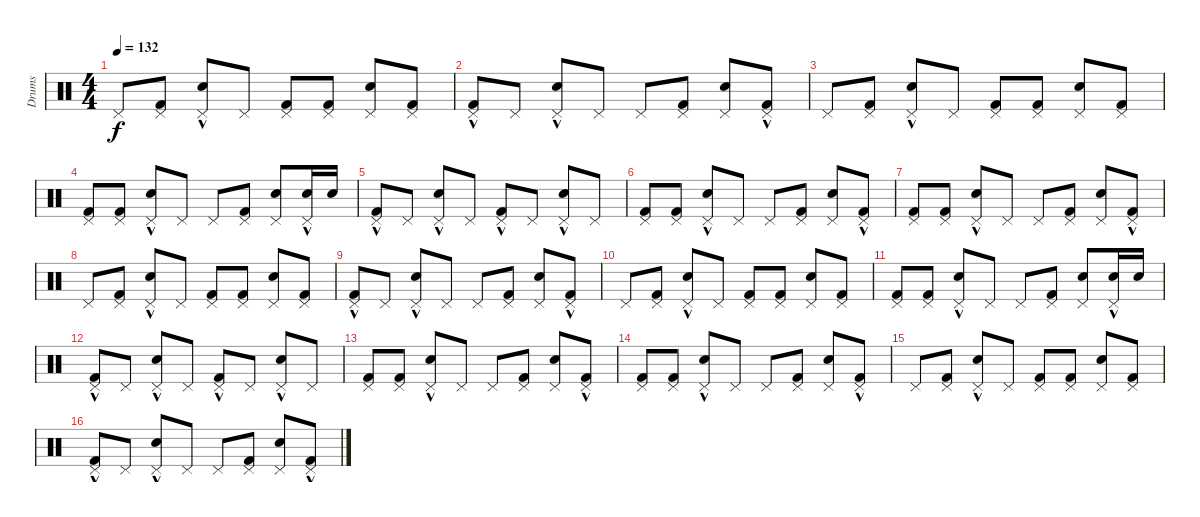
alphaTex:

\track ("Drums" "Drums") {instrument percussion}
\staff {score}
\articulation defaults
\ts (4 4)
\tempo 132
\clef neutral
\ks c "Pedal Hi-Hat (hit)".8{dy f}
("Pedal Hi-Hat (hit)" "Kick (hit) 2").8 ("Pedal Hi-Hat (hit)"{hac} "Snare (hit) 2").8 "Pedal Hi-Hat (hit)".8 ("Pedal Hi-Hat (hit)" "Kick (hit) 2").8 ("Pedal Hi-Hat (hit)" "Kick (hit) 2").8 ("Pedal Hi-Hat (hit)" "Snare (hit) 2").8 ("Pedal Hi-Hat (hit)" "Kick (hit) 2").8 |
("Pedal Hi-Hat (hit)"{hac} "Kick (hit) 2").8 "Pedal Hi-Hat (hit)".8 ("Pedal Hi-Hat (hit)"{hac} "Snare (hit) 2").8 "Pedal Hi-Hat (hit)".8 "Pedal Hi-Hat (hit)".8 ("Pedal Hi-Hat (hit)" "Kick (hit) 2").8 ("Pedal Hi-Hat (hit)" "Snare (hit) 2").8 ("Pedal Hi-Hat (hit)"{hac} "Kick (hit) 2"{hac}).8 |
"Pedal Hi-Hat (hit)".8 ("Pedal Hi-Hat (hit)" "Kick (hit) 2").8 ("Pedal Hi-Hat (hit)"{hac} "Snare (hit) 2").8 "Pedal Hi-Hat (hit)".8 ("Pedal Hi-Hat (hit)" "Kick (hit) 2").8 ("Pedal Hi-Hat (hit)" "Kick (hit) 2").8 ("Pedal Hi-Hat (hit)" "Snare (hit) 2").8 ("Pedal Hi-Hat (hit)" "Kick (hit) 2").8 |
("Pedal Hi-Hat (hit)" "Kick (hit) 2").8 ("Pedal Hi-Hat (hit)" "Kick (hit) 2").8 ("Pedal Hi-Hat (hit)"{hac} "Snare (hit) 2").8 "Pedal Hi-Hat (hit)".8 "Pedal Hi-Hat (hit)".8 ("Pedal Hi-Hat (hit)" "Kick (hit) 2").8 ("Pedal Hi-Hat (hit)" "Snare (hit) 2").8 ("Pedal Hi-Hat (hit)"{hac} "Snare (hit) 2").16 "Snare (hit) 2".16 |
("Pedal Hi-Hat (hit)"{hac} "Kick (hit) 2").8 "Pedal Hi-Hat (hit)".8 ("Pedal Hi-Hat (hit)"{hac} "Snare (hit) 2").8 "Pedal Hi-Hat (hit)".8 ("Pedal Hi-Hat (hit)"{hac} "Kick (hit) 2").8 "Pedal Hi-Hat (hit)".8 ("Pedal Hi-Hat (hit)"{hac} "Snare (hit) 2").8 "Pedal Hi-Hat (hit)".8 |
("Pedal Hi-Hat (hit)" "Kick (hit) 2").8 ("Pedal Hi-Hat (hit)" "Kick (hit) 2").8 ("Pedal Hi-Hat (hit)"{hac} "Snare (hit) 2").8 "Pedal Hi-Hat (hit)".8 "Pedal Hi-Hat (hit)".8 ("Pedal Hi-Hat (hit)" "Kick (hit) 2").8 ("Pedal Hi-Hat (hit)" "Snare (hit) 2").8 ("Pedal Hi-Hat (hit)"{hac} "Kick (hit) 2"{hac}).8 |
("Pedal Hi-Hat (hit)" "Kick (hit) 2").8 ("Pedal Hi-Hat (hit)" "Kick (hit) 2").8 ("Pedal Hi-Hat (hit)"{hac} "Snare (hit) 2").8 "Pedal Hi-Hat (hit)".8 "Pedal Hi-Hat (hit)".8 ("Pedal Hi-Hat (hit)" "Kick (hit) 2").8 ("Pedal Hi-Hat (hit)" "Snare (hit) 2").8 ("Pedal Hi-Hat (hit)"{hac} "Kick (hit) 2"{hac}).8 |
"Pedal Hi-Hat (hit)".8 ("Pedal Hi-Hat (hit)" "Kick (hit) 2").8 ("Pedal Hi-Hat (hit)"{hac} "Snare (hit) 2").8 "Pedal Hi-Hat (hit)".8 ("Pedal Hi-Hat (hit)" "Kick (hit) 2").8 ("Pedal Hi-Hat (hit)" "Kick (hit) 2").8 ("Pedal Hi-Hat (hit)" "Snare (hit) 2").8 ("Pedal Hi-Hat (hit)" "Kick (hit) 2").8 |
("Pedal Hi-Hat (hit)"{hac} "Kick (hit) 2").8 "Pedal Hi-Hat (hit)".8 ("Pedal Hi-Hat (hit)"{hac} "Snare (hit) 2").8 "Pedal Hi-Hat (hit)".8 "Pedal Hi-Hat (hit)".8 ("Pedal Hi-Hat (hit)" "Kick (hit) 2").8 ("Pedal Hi-Hat (hit)" "Snare (hit) 2").8 ("Pedal Hi-Hat (hit)"{hac} "Kick (hit) 2"{hac}).8 |
"Pedal Hi-Hat (hit)".8 ("Pedal Hi-Hat (hit)" "Kick (hit) 2").8 ("Pedal Hi-Hat (hit)"{hac} "Snare (hit) 2").8 "Pedal Hi-Hat (hit)".8 ("Pedal Hi-Hat (hit)" "Kick (hit) 2").8 ("Pedal Hi-Hat (hit)" "Kick (hit) 2").8 ("Pedal Hi-Hat (hit)" "Snare (hit) 2").8 ("Pedal Hi-Hat (hit)" "Kick (hit) 2").8 |
("Pedal Hi-Hat (hit)" "Kick (hit) 2").8 ("Pedal Hi-Hat (hit)" "Kick (hit) 2").8 ("Pedal Hi-Hat (hit)"{hac} "Snare (hit) 2").8 "Pedal Hi-Hat (hit)".8 "Pedal Hi-Hat (hit)".8 ("Pedal Hi-Hat (hit)" "Kick (hit) 2").8 ("Pedal Hi-Hat (hit)" "Snare (hit) 2").8 ("Pedal Hi-Hat (hit)"{hac} "Snare (hit) 2").16 "Snare (hit) 2".16 |
("Pedal Hi-Hat (hit)"{hac} "Kick (hit) 2").8 "Pedal Hi-Hat (hit)".8 ("Pedal Hi-Hat (hit)"{hac} "Snare (hit) 2").8 "Pedal Hi-Hat (hit)".8 ("Pedal Hi-Hat (hit)"{hac} "Kick (hit) 2").8 "Pedal Hi-Hat (hit)".8 ("Pedal Hi-Hat (hit)"{hac} "Snare (hit) 2").8 "Pedal Hi-Hat (hit)".8 |
("Pedal Hi-Hat (hit)" "Kick (hit) 2").8 ("Pedal Hi-Hat (hit)" "Kick (hit) 2").8 ("Pedal Hi-Hat (hit)"{hac} "Snare (hit) 2").8 "Pedal Hi-Hat (hit)".8 "Pedal Hi-Hat (hit)".8 ("Pedal Hi-Hat (hit)" "Kick (hit) 2").8 ("Pedal Hi-Hat (hit)" "Snare (hit) 2").8 ("Pedal Hi-Hat (hit)"{hac} "Kick (hit) 2"{hac}).8 |
("Pedal Hi-Hat (hit)" "Kick (hit) 2").8 ("Pedal Hi-Hat (hit)" "Kick (hit) 2").8 ("Pedal Hi-Hat (hit)"{hac} "Snare (hit) 2").8 "Pedal Hi-Hat (hit)".8 "Pedal Hi-Hat (hit)".8 ("Pedal Hi-Hat (hit)" "Kick (hit) 2").8 ("Pedal Hi-Hat (hit)" "Snare (hit) 2").8 ("Pedal Hi-Hat (hit)"{hac} "Kick (hit) 2"{hac}).8 |
"Pedal Hi-Hat (hit)".8 ("Pedal Hi-Hat (hit)" "Kick (hit) 2").8 ("Pedal Hi-Hat (hit)"{hac} "Snare (hit) 2").8 "Pedal Hi-Hat (hit)".8 ("Pedal Hi-Hat (hit)" "Kick (hit) 2").8 ("Pedal Hi-Hat (hit)" "Kick (hit) 2").8 ("Pedal Hi-Hat (hit)" "Snare (hit) 2").8 ("Pedal Hi-Hat (hit)" "Kick (hit) 2").8 |
("Pedal Hi-Hat (hit)"{hac} "Kick (hit) 2").8 "Pedal Hi-Hat (hit)".8 ("Pedal Hi-Hat (hit)"{hac} "Snare (hit) 2").8 "Pedal Hi-Hat (hit)".8 "Pedal Hi-Hat (hit)".8 ("Pedal Hi-Hat (hit)" "Kick (hit) 2").8 ("Pedal Hi-Hat (hit)" "Snare (hit) 2").8 ("Pedal Hi-Hat (hit)"{hac} "Kick (hit) 2"{hac}).8
